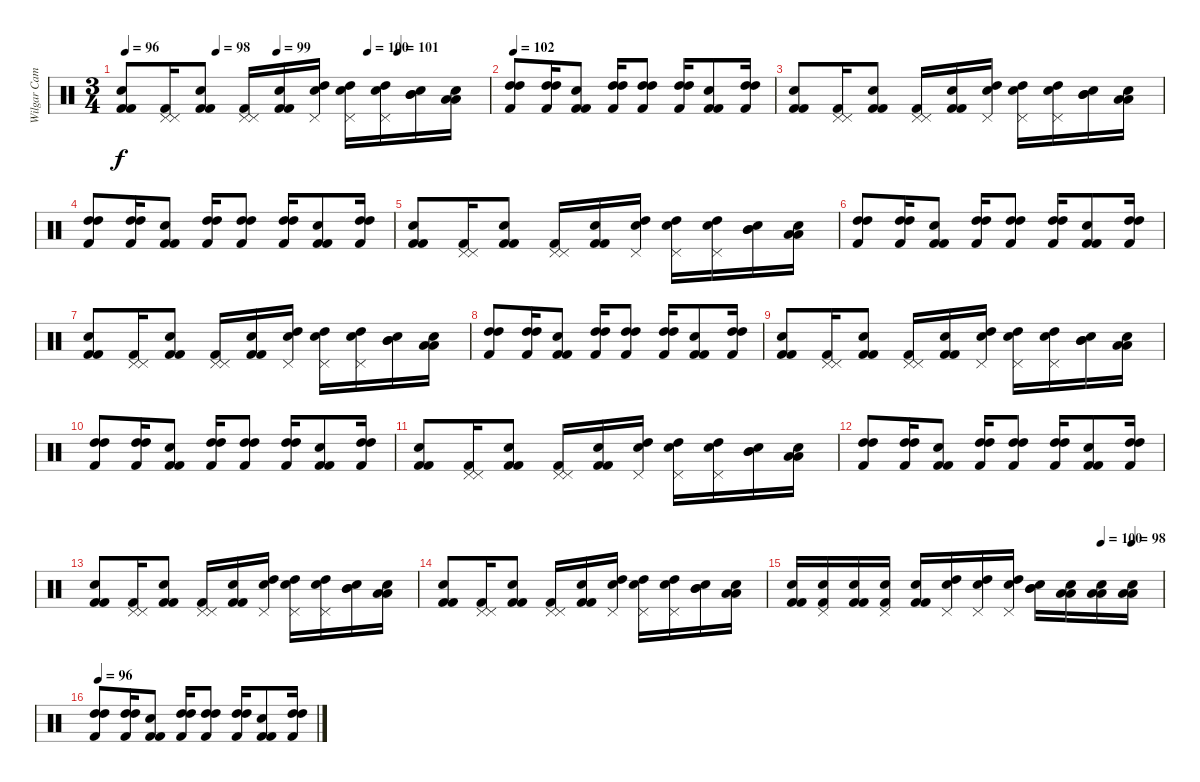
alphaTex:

\track ("Wilgar Campbell" "Wilgar Cam") {instrument percussion}
\staff {score}
\articulation defaults
\ts (3 4)
\tempo 96
\tempo (98 0.25)
\tempo (99 0.4166666666666667)
\tempo (100 0.6666666666666666)
\tempo (101 0.75)
\clef neutral
\ks c
("Electric Snare (hit)" "Kick (hit) 2" "Kick (hit) 2").8{dy f} ("Pedal Hi-Hat (hit)" "Pedal Hi-Hat (hit)" "Kick (hit) 2").16 ("Snare (hit) 2" "Kick (hit) 2" "Kick (hit) 2").8 ("Pedal Hi-Hat (hit)" "Pedal Hi-Hat (hit)" "Kick (hit) 2").16 ("Snare (hit) 2" "Kick (hit) 2" "Kick (hit) 2").16 ("Electric Snare (hit)" "Pedal Hi-Hat (hit)" "High Tom (hit)").16 ("Electric Snare (hit)" "Pedal Hi-Hat (hit)" "High Tom (hit)").16 ("Electric Snare (hit)" "Pedal Hi-Hat (hit)" "High Tom (hit)").16 ("Electric Snare (hit)" "Mid Tom (hit)" "Mid Tom (hit)").16 ("Electric Snare (hit)" "Low Tom (hit)" "Low Tom (hit)").16 |
\tempo 102
("High Tom (hit)" "High Tom (hit)" "Kick (hit) 2").8 ("High Tom (hit)" "High Tom (hit)" "Kick (hit) 2").16 ("Snare (hit) 2" "Kick (hit) 2" "Kick (hit) 2").8 ("High Tom (hit)" "High Tom (hit)" "Kick (hit) 2").16 ("High Tom (hit)" "High Tom (hit)" "Kick (hit) 2").8 ("High Tom (hit)" "High Tom (hit)" "Kick (hit) 2").16 ("Snare (hit) 2" "Kick (hit) 2" "Kick (hit) 2").8 ("High Tom (hit)" "High Tom (hit)" "Kick (hit) 2").16 |
("Electric Snare (hit)" "Kick (hit) 2" "Kick (hit) 2").8 ("Pedal Hi-Hat (hit)" "Pedal Hi-Hat (hit)" "Kick (hit) 2").16 ("Snare (hit) 2" "Kick (hit) 2" "Kick (hit) 2").8 ("Pedal Hi-Hat (hit)" "Pedal Hi-Hat (hit)" "Kick (hit) 2").16 ("Snare (hit) 2" "Kick (hit) 2" "Kick (hit) 2").16 ("Electric Snare (hit)" "Pedal Hi-Hat (hit)" "High Tom (hit)").16 ("Electric Snare (hit)" "Pedal Hi-Hat (hit)" "High Tom (hit)").16 ("Electric Snare (hit)" "Pedal Hi-Hat (hit)" "High Tom (hit)").16 ("Electric Snare (hit)" "Mid Tom (hit)" "Mid Tom (hit)").16 ("Electric Snare (hit)" "Low Tom (hit)" "Low Tom (hit)").16 |
("High Tom (hit)" "High Tom (hit)" "Kick (hit) 2").8 ("High Tom (hit)" "High Tom (hit)" "Kick (hit) 2").16 ("Snare (hit) 2" "Kick (hit) 2" "Kick (hit) 2").8 ("High Tom (hit)" "High Tom (hit)" "Kick (hit) 2").16 ("High Tom (hit)" "High Tom (hit)" "Kick (hit) 2").8 ("High Tom (hit)" "High Tom (hit)" "Kick (hit) 2").16 ("Snare (hit) 2" "Kick (hit) 2" "Kick (hit) 2").8 ("High Tom (hit)" "High Tom (hit)" "Kick (hit) 2").16 |
("Electric Snare (hit)" "Kick (hit) 2" "Kick (hit) 2").8 ("Pedal Hi-Hat (hit)" "Pedal Hi-Hat (hit)" "Kick (hit) 2").16 ("Snare (hit) 2" "Kick (hit) 2" "Kick (hit) 2").8 ("Pedal Hi-Hat (hit)" "Pedal Hi-Hat (hit)" "Kick (hit) 2").16 ("Snare (hit) 2" "Kick (hit) 2" "Kick (hit) 2").16 ("Electric Snare (hit)" "Pedal Hi-Hat (hit)" "High Tom (hit)").16 ("Electric Snare (hit)" "Pedal Hi-Hat (hit)" "High Tom (hit)").16 ("Electric Snare (hit)" "Pedal Hi-Hat (hit)" "High Tom (hit)").16 ("Electric Snare (hit)" "Mid Tom (hit)" "Mid Tom (hit)").16 ("Electric Snare (hit)" "Low Tom (hit)" "Low Tom (hit)").16 |
("High Tom (hit)" "High Tom (hit)" "Kick (hit) 2").8 ("High Tom (hit)" "High Tom (hit)" "Kick (hit) 2").16 ("Snare (hit) 2" "Kick (hit) 2" "Kick (hit) 2").8 ("High Tom (hit)" "High Tom (hit)" "Kick (hit) 2").16 ("High Tom (hit)" "High Tom (hit)" "Kick (hit) 2").8 ("High Tom (hit)" "High Tom (hit)" "Kick (hit) 2").16 ("Snare (hit) 2" "Kick (hit) 2" "Kick (hit) 2").8 ("High Tom (hit)" "High Tom (hit)" "Kick (hit) 2").16 |
("Electric Snare (hit)" "Kick (hit) 2" "Kick (hit) 2").8 ("Pedal Hi-Hat (hit)" "Pedal Hi-Hat (hit)" "Kick (hit) 2").16 ("Snare (hit) 2" "Kick (hit) 2" "Kick (hit) 2").8 ("Pedal Hi-Hat (hit)" "Pedal Hi-Hat (hit)" "Kick (hit) 2").16 ("Snare (hit) 2" "Kick (hit) 2" "Kick (hit) 2").16 ("Electric Snare (hit)" "Pedal Hi-Hat (hit)" "High Tom (hit)").16 ("Electric Snare (hit)" "Pedal Hi-Hat (hit)" "High Tom (hit)").16 ("Electric Snare (hit)" "Pedal Hi-Hat (hit)" "High Tom (hit)").16 ("Electric Snare (hit)" "Mid Tom (hit)" "Mid Tom (hit)").16 ("Electric Snare (hit)" "Low Tom (hit)" "Low Tom (hit)").16 |
("High Tom (hit)" "High Tom (hit)" "Kick (hit) 2").8 ("High Tom (hit)" "High Tom (hit)" "Kick (hit) 2").16 ("Snare (hit) 2" "Kick (hit) 2" "Kick (hit) 2").8 ("High Tom (hit)" "High Tom (hit)" "Kick (hit) 2").16 ("High Tom (hit)" "High Tom (hit)" "Kick (hit) 2").8 ("High Tom (hit)" "High Tom (hit)" "Kick (hit) 2").16 ("Snare (hit) 2" "Kick (hit) 2" "Kick (hit) 2").8 ("High Tom (hit)" "High Tom (hit)" "Kick (hit) 2").16 |
("Electric Snare (hit)" "Kick (hit) 2" "Kick (hit) 2").8 ("Pedal Hi-Hat (hit)" "Pedal Hi-Hat (hit)" "Kick (hit) 2").16 ("Snare (hit) 2" "Kick (hit) 2" "Kick (hit) 2").8 ("Pedal Hi-Hat (hit)" "Pedal Hi-Hat (hit)" "Kick (hit) 2").16 ("Snare (hit) 2" "Kick (hit) 2" "Kick (hit) 2").16 ("Electric Snare (hit)" "Pedal Hi-Hat (hit)" "High Tom (hit)").16 ("Electric Snare (hit)" "Pedal Hi-Hat (hit)" "High Tom (hit)").16 ("Electric Snare (hit)" "Pedal Hi-Hat (hit)" "High Tom (hit)").16 ("Electric Snare (hit)" "Mid Tom (hit)" "Mid Tom (hit)").16 ("Electric Snare (hit)" "Low Tom (hit)" "Low Tom (hit)").16 |
("High Tom (hit)" "High Tom (hit)" "Kick (hit) 2").8 ("High Tom (hit)" "High Tom (hit)" "Kick (hit) 2").16 ("Snare (hit) 2" "Kick (hit) 2" "Kick (hit) 2").8 ("High Tom (hit)" "High Tom (hit)" "Kick (hit) 2").16 ("High Tom (hit)" "High Tom (hit)" "Kick (hit) 2").8 ("High Tom (hit)" "High Tom (hit)" "Kick (hit) 2").16 ("Snare (hit) 2" "Kick (hit) 2" "Kick (hit) 2").8 ("High Tom (hit)" "High Tom (hit)" "Kick (hit) 2").16 |
("Electric Snare (hit)" "Kick (hit) 2" "Kick (hit) 2").8 ("Pedal Hi-Hat (hit)" "Pedal Hi-Hat (hit)" "Kick (hit) 2").16 ("Snare (hit) 2" "Kick (hit) 2" "Kick (hit) 2").8 ("Pedal Hi-Hat (hit)" "Pedal Hi-Hat (hit)" "Kick (hit) 2").16 ("Snare (hit) 2" "Kick (hit) 2" "Kick (hit) 2").16 ("Electric Snare (hit)" "Pedal Hi-Hat (hit)" "High Tom (hit)").16 ("Electric Snare (hit)" "Pedal Hi-Hat (hit)" "High Tom (hit)").16 ("Electric Snare (hit)" "Pedal Hi-Hat (hit)" "High Tom (hit)").16 ("Electric Snare (hit)" "Mid Tom (hit)" "Mid Tom (hit)").16 ("Electric Snare (hit)" "Low Tom (hit)" "Low Tom (hit)").16 |
("High Tom (hit)" "High Tom (hit)" "Kick (hit) 2").8 ("High Tom (hit)" "High Tom (hit)" "Kick (hit) 2").16 ("Snare (hit) 2" "Kick (hit) 2" "Kick (hit) 2").8 ("High Tom (hit)" "High Tom (hit)" "Kick (hit) 2").16 ("High Tom (hit)" "High Tom (hit)" "Kick (hit) 2").8 ("High Tom (hit)" "High Tom (hit)" "Kick (hit) 2").16 ("Snare (hit) 2" "Kick (hit) 2" "Kick (hit) 2").8 ("High Tom (hit)" "High Tom (hit)" "Kick (hit) 2").16 |
("Electric Snare (hit)" "Kick (hit) 2" "Kick (hit) 2").8 ("Pedal Hi-Hat (hit)" "Pedal Hi-Hat (hit)" "Kick (hit) 2").16 ("Snare (hit) 2" "Kick (hit) 2" "Kick (hit) 2").8 ("Pedal Hi-Hat (hit)" "Pedal Hi-Hat (hit)" "Kick (hit) 2").16 ("Snare (hit) 2" "Kick (hit) 2" "Kick (hit) 2").16 ("Electric Snare (hit)" "Pedal Hi-Hat (hit)" "High Tom (hit)").16 ("Electric Snare (hit)" "Pedal Hi-Hat (hit)" "High Tom (hit)").16 ("Electric Snare (hit)" "Pedal Hi-Hat (hit)" "High Tom (hit)").16 ("Electric Snare (hit)" "Mid Tom (hit)" "Mid Tom (hit)").16 ("Electric Snare (hit)" "Low Tom (hit)" "Low Tom (hit)").16 |
("Electric Snare (hit)" "Kick (hit) 2" "Kick (hit) 2").8 ("Pedal Hi-Hat (hit)" "Pedal Hi-Hat (hit)" "Kick (hit) 2").16 ("Snare (hit) 2" "Kick (hit) 2" "Kick (hit) 2").8 ("Pedal Hi-Hat (hit)" "Pedal Hi-Hat (hit)" "Kick (hit) 2").16 ("Snare (hit) 2" "Kick (hit) 2" "Kick (hit) 2").16 ("Electric Snare (hit)" "Pedal Hi-Hat (hit)" "High Tom (hit)").16 ("Electric Snare (hit)" "Pedal Hi-Hat (hit)" "High Tom (hit)").16 ("Electric Snare (hit)" "Pedal Hi-Hat (hit)" "High Tom (hit)").16 ("Electric Snare (hit)" "Mid Tom (hit)" "Mid Tom (hit)").16 ("Electric Snare (hit)" "Low Tom (hit)" "Low Tom (hit)").16 |
\tempo (100 0.8333333333333334)
\tempo (98 0.9166666666666666)
("Electric Snare (hit)" "Kick (hit) 2" "Kick (hit) 2").16 ("Electric Snare (hit)" "Pedal Hi-Hat (hit)" "Kick (hit) 2").16 ("Electric Snare (hit)" "Kick (hit) 2" "Kick (hit) 2").16 ("Electric Snare (hit)" "Pedal Hi-Hat (hit)" "Kick (hit) 2").16 ("Electric Snare (hit)" "Kick (hit) 2" "Kick (hit) 2").16 ("Electric Snare (hit)" "Pedal Hi-Hat (hit)" "High Tom (hit)").16 ("Snare (hit) 2" "Pedal Hi-Hat (hit)" "High Tom (hit)").16 ("Snare (hit) 2" "Pedal Hi-Hat (hit)" "High Tom (hit)").16 ("Snare (hit) 2" "Mid Tom (hit)" "Mid Tom (hit)").16 ("Snare (hit) 2" "Low Tom (hit)" "Low Tom (hit)").16 ("Snare (hit) 2" "Low Tom (hit)" "Low Tom (hit)").16 ("Snare (hit) 2" "Low Tom (hit)" "Low Tom (hit)").16 |
\tempo 96
("High Tom (hit)" "High Tom (hit)" "Kick (hit) 2").8 ("High Tom (hit)" "High Tom (hit)" "Kick (hit) 2").16 ("Snare (hit) 2" "Kick (hit) 2" "Kick (hit) 2").8 ("High Tom (hit)" "High Tom (hit)" "Kick (hit) 2").16 ("High Tom (hit)" "High Tom (hit)" "Kick (hit) 2").8 ("High Tom (hit)" "High Tom (hit)" "Kick (hit) 2").16 ("Snare (hit) 2" "Kick (hit) 2" "Kick (hit) 2").8 ("High Tom (hit)" "High Tom (hit)" "Kick (hit) 2").16
